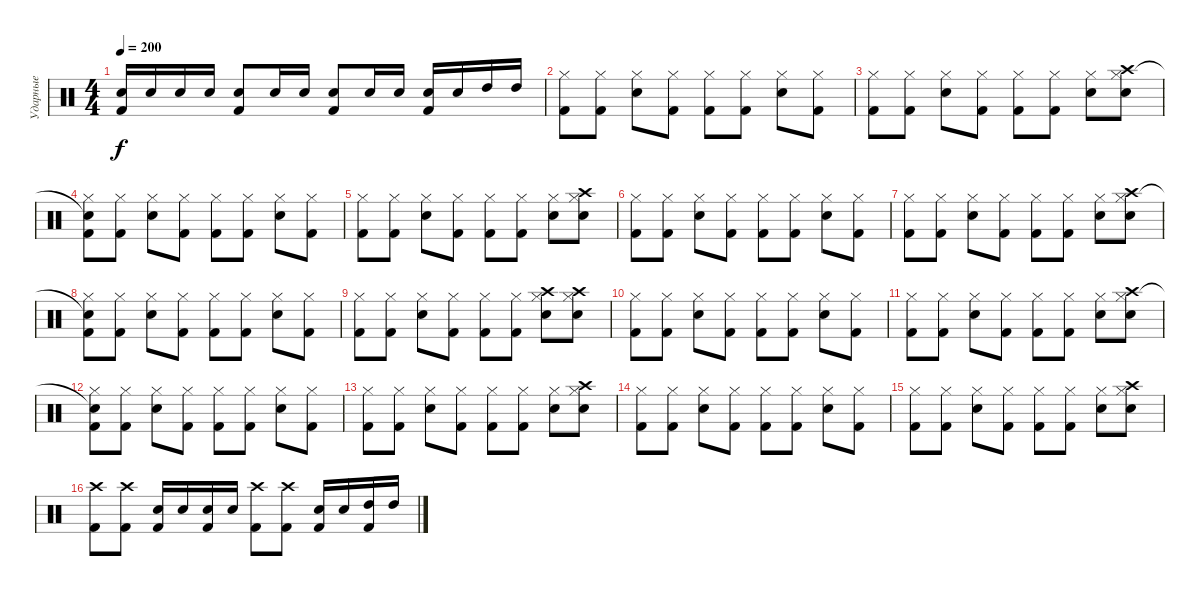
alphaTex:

\track ("Ударные" "Ударные") {instrument percussion}
\staff {score}
\articulation defaults
\ts (4 4)
\tempo 200
\clef neutral
\ks c
("Electric Snare (hit)" "Kick (hit) 2").16{dy f} "Electric Snare (hit)".16 "Electric Snare (hit)".16 "Electric Snare (hit)".16 ("Electric Snare (hit)" "Kick (hit) 2").8 "Electric Snare (hit)".16 "Electric Snare (hit)".16 ("Electric Snare (hit)" "Kick (hit) 2").8 "Electric Snare (hit)".16 "Electric Snare (hit)".16 ("Electric Snare (hit)" "Kick (hit) 2").16 "Electric Snare (hit)".16 "High Tom (hit)".16 "High Tom (hit)".16 |
("Hi-Hat (closed)" "Kick (hit) 2").8 ("Hi-Hat (closed)" "Kick (hit) 2").8 ("Hi-Hat (closed)" "Electric Snare (hit)").8 ("Hi-Hat (closed)" "Kick (hit) 2").8 ("Hi-Hat (closed)" "Kick (hit) 2").8 ("Hi-Hat (closed)" "Kick (hit) 2").8 ("Hi-Hat (closed)" "Electric Snare (hit)").8 ("Hi-Hat (closed)" "Kick (hit) 2").8 |
("Hi-Hat (closed)" "Kick (hit) 2").8 ("Hi-Hat (closed)" "Kick (hit) 2").8 ("Hi-Hat (closed)" "Electric Snare (hit)").8 ("Hi-Hat (closed)" "Kick (hit) 2").8 ("Hi-Hat (closed)" "Kick (hit) 2").8 ("Hi-Hat (closed)" "Kick (hit) 2").8 ("Hi-Hat (closed)" "Electric Snare (hit)").8 ("Hi-Hat (closed)" "Crash high (hit)" "Electric Snare (hit)").8 |
("Snare (hit)"{t} "Hi-Hat (closed)" "Kick (hit) 2").8 ("Hi-Hat (closed)" "Kick (hit) 2").8 ("Hi-Hat (closed)" "Electric Snare (hit)").8 ("Hi-Hat (closed)" "Kick (hit) 2").8 ("Hi-Hat (closed)" "Kick (hit) 2").8 ("Hi-Hat (closed)" "Kick (hit) 2").8 ("Hi-Hat (closed)" "Electric Snare (hit)").8 ("Hi-Hat (closed)" "Kick (hit) 2").8 |
("Hi-Hat (closed)" "Kick (hit) 2").8 ("Hi-Hat (closed)" "Kick (hit) 2").8 ("Hi-Hat (closed)" "Electric Snare (hit)").8 ("Hi-Hat (closed)" "Kick (hit) 2").8 ("Hi-Hat (closed)" "Kick (hit) 2").8 ("Hi-Hat (closed)" "Kick (hit) 2").8 ("Hi-Hat (closed)" "Electric Snare (hit)").8 ("Hi-Hat (closed)" "Crash high (hit)" "Electric Snare (hit)").8 |
("Hi-Hat (closed)" "Kick (hit) 2").8 ("Hi-Hat (closed)" "Kick (hit) 2").8 ("Hi-Hat (closed)" "Electric Snare (hit)").8 ("Hi-Hat (closed)" "Kick (hit) 2").8 ("Hi-Hat (closed)" "Kick (hit) 2").8 ("Hi-Hat (closed)" "Kick (hit) 2").8 ("Hi-Hat (closed)" "Electric Snare (hit)").8 ("Hi-Hat (closed)" "Kick (hit) 2").8 |
("Hi-Hat (closed)" "Kick (hit) 2").8 ("Hi-Hat (closed)" "Kick (hit) 2").8 ("Hi-Hat (closed)" "Electric Snare (hit)").8 ("Hi-Hat (closed)" "Kick (hit) 2").8 ("Hi-Hat (closed)" "Kick (hit) 2").8 ("Hi-Hat (closed)" "Kick (hit) 2").8 ("Hi-Hat (closed)" "Electric Snare (hit)").8 ("Hi-Hat (closed)" "Crash high (hit)" "Electric Snare (hit)").8 |
("Snare (hit)"{t} "Hi-Hat (closed)" "Kick (hit) 2").8 ("Hi-Hat (closed)" "Kick (hit) 2").8 ("Hi-Hat (closed)" "Electric Snare (hit)").8 ("Hi-Hat (closed)" "Kick (hit) 2").8 ("Hi-Hat (closed)" "Kick (hit) 2").8 ("Hi-Hat (closed)" "Kick (hit) 2").8 ("Hi-Hat (closed)" "Electric Snare (hit)").8 ("Hi-Hat (closed)" "Kick (hit) 2").8 |
("Hi-Hat (closed)" "Kick (hit) 2").8 ("Hi-Hat (closed)" "Kick (hit) 2").8 ("Hi-Hat (closed)" "Electric Snare (hit)").8 ("Hi-Hat (closed)" "Kick (hit) 2").8 ("Hi-Hat (closed)" "Kick (hit) 2").8 ("Hi-Hat (closed)" "Kick (hit) 2").8 ("Hi-Hat (closed)" "Crash high (hit)" "Electric Snare (hit)").8 ("Hi-Hat (closed)" "Crash high (hit)" "Electric Snare (hit)").8 |
("Hi-Hat (closed)" "Kick (hit) 2").8 ("Hi-Hat (closed)" "Kick (hit) 2").8 ("Hi-Hat (closed)" "Electric Snare (hit)").8 ("Hi-Hat (closed)" "Kick (hit) 2").8 ("Hi-Hat (closed)" "Kick (hit) 2").8 ("Hi-Hat (closed)" "Kick (hit) 2").8 ("Hi-Hat (closed)" "Electric Snare (hit)").8 ("Hi-Hat (closed)" "Kick (hit) 2").8 |
("Hi-Hat (closed)" "Kick (hit) 2").8 ("Hi-Hat (closed)" "Kick (hit) 2").8 ("Hi-Hat (closed)" "Electric Snare (hit)").8 ("Hi-Hat (closed)" "Kick (hit) 2").8 ("Hi-Hat (closed)" "Kick (hit) 2").8 ("Hi-Hat (closed)" "Kick (hit) 2").8 ("Hi-Hat (closed)" "Electric Snare (hit)").8 ("Hi-Hat (closed)" "Crash high (hit)" "Electric Snare (hit)").8 |
("Snare (hit)"{t} "Hi-Hat (closed)" "Kick (hit) 2").8 ("Hi-Hat (closed)" "Kick (hit) 2").8 ("Hi-Hat (closed)" "Electric Snare (hit)").8 ("Hi-Hat (closed)" "Kick (hit) 2").8 ("Hi-Hat (closed)" "Kick (hit) 2").8 ("Hi-Hat (closed)" "Kick (hit) 2").8 ("Hi-Hat (closed)" "Electric Snare (hit)").8 ("Hi-Hat (closed)" "Kick (hit) 2").8 |
("Hi-Hat (closed)" "Kick (hit) 2").8 ("Hi-Hat (closed)" "Kick (hit) 2").8 ("Hi-Hat (closed)" "Electric Snare (hit)").8 ("Hi-Hat (closed)" "Kick (hit) 2").8 ("Hi-Hat (closed)" "Kick (hit) 2").8 ("Hi-Hat (closed)" "Kick (hit) 2").8 ("Hi-Hat (closed)" "Electric Snare (hit)").8 ("Hi-Hat (closed)" "Crash high (hit)" "Electric Snare (hit)").8 |
("Hi-Hat (closed)" "Kick (hit) 2").8 ("Hi-Hat (closed)" "Kick (hit) 2").8 ("Hi-Hat (closed)" "Electric Snare (hit)").8 ("Hi-Hat (closed)" "Kick (hit) 2").8 ("Hi-Hat (closed)" "Kick (hit) 2").8 ("Hi-Hat (closed)" "Kick (hit) 2").8 ("Hi-Hat (closed)" "Electric Snare (hit)").8 ("Hi-Hat (closed)" "Kick (hit) 2").8 |
("Hi-Hat (closed)" "Kick (hit) 2").8 ("Hi-Hat (closed)" "Kick (hit) 2").8 ("Hi-Hat (closed)" "Electric Snare (hit)").8 ("Hi-Hat (closed)" "Kick (hit) 2").8 ("Hi-Hat (closed)" "Kick (hit) 2").8 ("Hi-Hat (closed)" "Kick (hit) 2").8 ("Hi-Hat (closed)" "Electric Snare (hit)").8 ("Hi-Hat (closed)" "Crash high (hit)" "Electric Snare (hit)").8 |
("Crash high (hit)" "Kick (hit) 2").8 ("Crash high (hit)" "Kick (hit) 2").8 ("Electric Snare (hit)" "Kick (hit) 2").16 "Electric Snare (hit)".16 ("Electric Snare (hit)" "Kick (hit) 2").16 "Electric Snare (hit)".16 ("Crash high (hit)" "Kick (hit) 2").8 ("Crash high (hit)" "Kick (hit) 2").8 ("Electric Snare (hit)" "Kick (hit) 2").16 "Electric Snare (hit)".16 ("High Tom (hit)" "Kick (hit) 2").16 "High Tom (hit)".16
